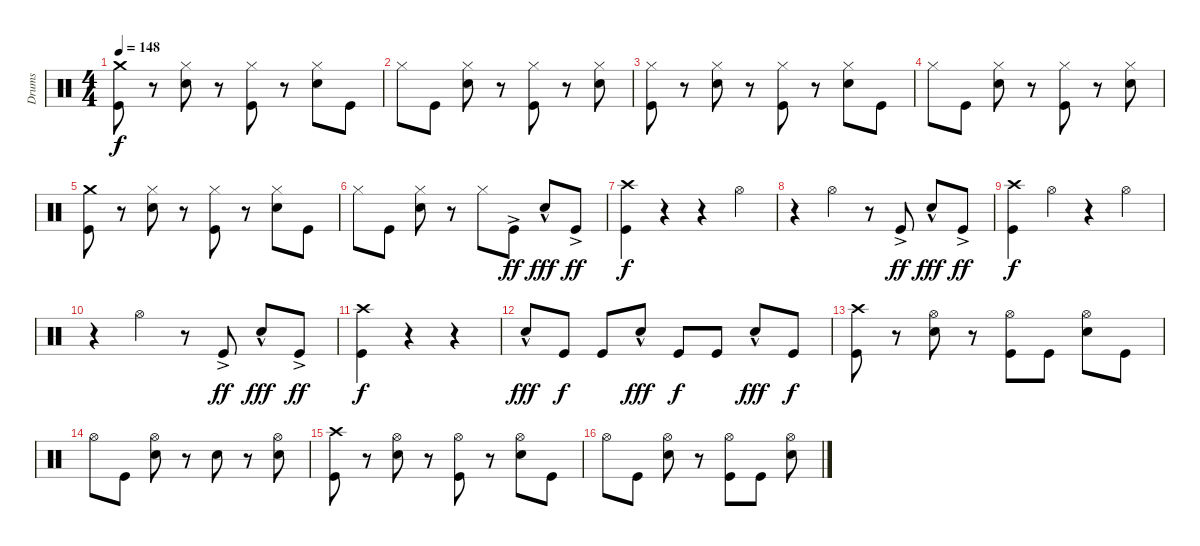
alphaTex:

\track ("Drums" "Drums") {instrument percussion}
\staff {score}
\articulation defaults
\ts (4 4)
\tempo 148
\clef neutral
\ks c
("Crash medium (hit)" "Kick (hit)").8{dy f} r.8 ("Hi-Hat (closed)" "Electric Snare (hit)").8 r.8 ("Hi-Hat (closed)" "Kick (hit)").8 r.8 ("Hi-Hat (closed)" "Electric Snare (hit)").8 "Kick (hit)".8 |
"Hi-Hat (closed)".8 "Kick (hit)".8 ("Hi-Hat (closed)" "Electric Snare (hit)").8 r.8 ("Hi-Hat (closed)" "Kick (hit)").8 r.8 ("Hi-Hat (closed)" "Electric Snare (hit)").8 |
("Hi-Hat (closed)" "Kick (hit)").8 r.8 ("Hi-Hat (closed)" "Electric Snare (hit)").8 r.8 ("Hi-Hat (closed)" "Kick (hit)").8 r.8 ("Hi-Hat (closed)" "Electric Snare (hit)").8 "Kick (hit)".8 |
"Hi-Hat (closed)".8 "Kick (hit)".8 ("Hi-Hat (closed)" "Electric Snare (hit)").8 r.8 ("Hi-Hat (closed)" "Kick (hit)").8 r.8 ("Hi-Hat (closed)" "Electric Snare (hit)").8 |
("Crash medium (hit)" "Kick (hit)").8 r.8 ("Hi-Hat (closed)" "Electric Snare (hit)").8 r.8 ("Hi-Hat (closed)" "Kick (hit)").8 r.8 ("Hi-Hat (closed)" "Electric Snare (hit)").8 "Kick (hit)".8 |
"Hi-Hat (closed)".8 "Kick (hit)".8 ("Hi-Hat (closed)" "Electric Snare (hit)").8 r.8 "Hi-Hat (closed)".8 "Kick (hit)"{ac}.8{dy ff} "Electric Snare (hit)"{hac}.8{dy fff} "Kick (hit)"{ac}.8{dy ff} |
("Crash high (hit)" "Kick (hit)").4{dy f} r.4 r.4 "Hi-Hat (open)".4 |
r.4 "Hi-Hat (open)".4 r.8 "Kick (hit)"{ac}.8{dy ff} "Electric Snare (hit)"{hac}.8{dy fff} "Kick (hit)"{ac}.8{dy ff} |
("Crash high (hit)" "Kick (hit)").4{dy f} "Hi-Hat (open)".4 r.4 "Hi-Hat (open)".4 |
r.4 "Hi-Hat (open)".4 r.8 "Kick (hit)"{ac}.8{dy ff} "Electric Snare (hit)"{hac}.8{dy fff} "Kick (hit)"{ac}.8{dy ff} |
("Crash high (hit)" "Kick (hit)").4{dy f} r.4 r.4 |
"Electric Snare (hit)"{hac}.8{dy fff} "Kick (hit)".8{dy f} "Kick (hit)".8 "Electric Snare (hit)"{hac}.8{dy fff} "Kick (hit)".8{dy f} "Kick (hit)".8 "Electric Snare (hit)"{hac}.8{dy fff} "Kick (hit)".8{dy f} |
("Crash high (hit)" "Kick (hit)").8 r.8 ("Hi-Hat (open)" "Electric Snare (hit)").8 r.8 ("Hi-Hat (open)" "Kick (hit)").8 "Kick (hit)".8 ("Hi-Hat (open)" "Electric Snare (hit)").8 "Kick (hit)".8 |
"Hi-Hat (open)".8 "Kick (hit)".8 ("Hi-Hat (open)" "Electric Snare (hit)").8 r.8 "Electric Snare (hit)".8 r.8 ("Hi-Hat (open)" "Electric Snare (hit)").8 |
("Crash high (hit)" "Kick (hit)").8 r.8 ("Hi-Hat (open)" "Electric Snare (hit)").8 r.8 ("Hi-Hat (open)" "Kick (hit)").8 r.8 ("Hi-Hat (open)" "Electric Snare (hit)").8 "Kick (hit)".8 |
"Hi-Hat (open)".8 "Kick (hit)".8 ("Hi-Hat (open)" "Electric Snare (hit)").8 r.8 ("Hi-Hat (open)" "Kick (hit)").8 "Kick (hit)".8 ("Hi-Hat (open)" "Electric Snare (hit)").8
